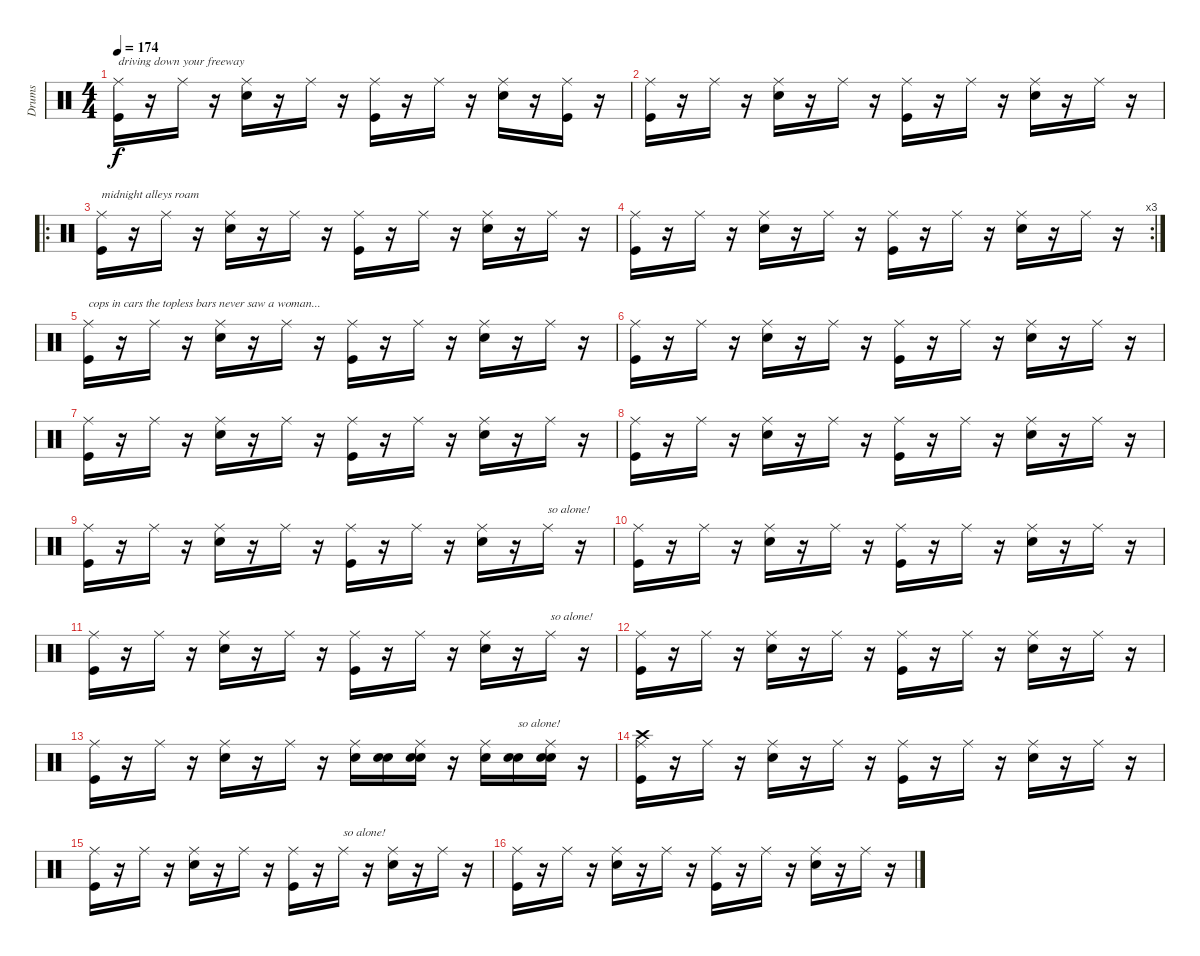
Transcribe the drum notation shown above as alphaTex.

\track ("Drums" "Drums") {instrument percussion}
\staff {score}
\articulation defaults
\ts (4 4)
\tempo 174
\clef neutral
\ks c
("Kick (hit)" "Ride (middle)").16{txt "driving down your freeway" dy f} r.16 "Ride (middle)".16 r.16 ("Snare (hit) 2" "Ride (middle)").16 r.16 "Ride (middle)".16 r.16 ("Kick (hit)" "Ride (middle)").16 r.16 "Ride (middle)".16 r.16 ("Snare (hit) 2" "Ride (middle)").16 r.16 ("Ride (middle)" "Kick (hit)").16 r.16 |
("Kick (hit)" "Ride (middle)").16 r.16 "Ride (middle)".16 r.16 ("Snare (hit) 2" "Ride (middle)").16 r.16 "Ride (middle)".16 r.16 ("Kick (hit)" "Ride (middle)").16 r.16 "Ride (middle)".16 r.16 ("Snare (hit) 2" "Ride (middle)").16 r.16 "Ride (middle)".16 r.16 |
\ro
("Kick (hit)" "Ride (middle)").16{txt "midnight alleys roam"} r.16 "Ride (middle)".16 r.16 ("Snare (hit) 2" "Ride (middle)").16 r.16 "Ride (middle)".16 r.16 ("Kick (hit)" "Ride (middle)").16 r.16 "Ride (middle)".16 r.16 ("Snare (hit) 2" "Ride (middle)").16 r.16 "Ride (middle)".16 r.16 |
\rc 3
("Kick (hit)" "Ride (middle)").16 r.16 "Ride (middle)".16 r.16 ("Snare (hit) 2" "Ride (middle)").16 r.16 "Ride (middle)".16 r.16 ("Kick (hit)" "Ride (middle)").16 r.16 "Ride (middle)".16 r.16 ("Snare (hit) 2" "Ride (middle)").16 r.16 "Ride (middle)".16 r.16 |
("Kick (hit)" "Ride (middle)").16{txt "cops in cars the topless bars never saw a woman..."} r.16 "Ride (middle)".16 r.16 ("Snare (hit) 2" "Ride (middle)").16 r.16 "Ride (middle)".16 r.16 ("Kick (hit)" "Ride (middle)").16 r.16 "Ride (middle)".16 r.16 ("Snare (hit) 2" "Ride (middle)").16 r.16 "Ride (middle)".16 r.16 |
("Kick (hit)" "Ride (middle)").16 r.16 "Ride (middle)".16 r.16 ("Snare (hit) 2" "Ride (middle)").16 r.16 "Ride (middle)".16 r.16 ("Kick (hit)" "Ride (middle)").16 r.16 "Ride (middle)".16 r.16 ("Snare (hit) 2" "Ride (middle)").16 r.16 "Ride (middle)".16 r.16 |
("Kick (hit)" "Ride (middle)").16 r.16 "Ride (middle)".16 r.16 ("Snare (hit) 2" "Ride (middle)").16 r.16 "Ride (middle)".16 r.16 ("Kick (hit)" "Ride (middle)").16 r.16 "Ride (middle)".16 r.16 ("Snare (hit) 2" "Ride (middle)").16 r.16 "Ride (middle)".16 r.16 |
("Kick (hit)" "Ride (middle)").16 r.16 "Ride (middle)".16 r.16 ("Snare (hit) 2" "Ride (middle)").16 r.16 "Ride (middle)".16 r.16 ("Kick (hit)" "Ride (middle)").16 r.16 "Ride (middle)".16 r.16 ("Snare (hit) 2" "Ride (middle)").16 r.16 "Ride (middle)".16 r.16 |
("Kick (hit)" "Ride (middle)").16 r.16 "Ride (middle)".16 r.16 ("Snare (hit) 2" "Ride (middle)").16 r.16 "Ride (middle)".16 r.16 ("Kick (hit)" "Ride (middle)").16 r.16 "Ride (middle)".16 r.16 ("Snare (hit) 2" "Ride (middle)").16 r.16 "Ride (middle)".16{txt "so alone!"} r.16 |
("Kick (hit)" "Ride (middle)").16 r.16 "Ride (middle)".16 r.16 ("Snare (hit) 2" "Ride (middle)").16 r.16 "Ride (middle)".16 r.16 ("Kick (hit)" "Ride (middle)").16 r.16 "Ride (middle)".16 r.16 ("Snare (hit) 2" "Ride (middle)").16 r.16 "Ride (middle)".16 r.16 |
("Kick (hit)" "Ride (middle)").16 r.16 "Ride (middle)".16 r.16 ("Snare (hit) 2" "Ride (middle)").16 r.16 "Ride (middle)".16 r.16 ("Kick (hit)" "Ride (middle)").16 r.16 "Ride (middle)".16 r.16 ("Snare (hit) 2" "Ride (middle)").16 r.16 "Ride (middle)".16{txt "so alone!"} r.16 |
("Kick (hit)" "Ride (middle)").16 r.16 "Ride (middle)".16 r.16 ("Snare (hit) 2" "Ride (middle)").16 r.16 "Ride (middle)".16 r.16 ("Kick (hit)" "Ride (middle)").16 r.16 "Ride (middle)".16 r.16 ("Snare (hit) 2" "Ride (middle)").16 r.16 "Ride (middle)".16 r.16 |
("Kick (hit)" "Ride (middle)").16 r.16 "Ride (middle)".16 r.16 ("Snare (hit) 2" "Ride (middle)").16 r.16 "Ride (middle)".16 r.16 ("Snare (hit) 2" "Ride (middle)").16 ("Snare (hit)" "Snare (hit) 2").16 ("Snare (hit)" "Snare (hit) 2" "Ride (middle)").16 r.16 ("Snare (hit) 2" "Ride (middle)").16 ("Snare (hit)" "Snare (hit) 2").16{txt "so alone!"} ("Snare (hit)" "Snare (hit) 2" "Ride (middle)").16 r.16 |
("Ride (middle)" "Crash high (hit)" "Kick (hit)").16 r.16 "Ride (middle)".16 r.16 ("Ride (middle)" "Snare (hit) 2").16 r.16 "Ride (middle)".16 r.16 ("Ride (middle)" "Kick (hit)").16 r.16 "Ride (middle)".16 r.16 ("Ride (middle)" "Snare (hit) 2").16 r.16 "Ride (middle)".16 r.16 |
("Ride (middle)" "Kick (hit)").16 r.16 "Ride (middle)".16 r.16 ("Ride (middle)" "Snare (hit) 2").16 r.16 "Ride (middle)".16 r.16 ("Kick (hit)" "Ride (middle)").16 r.16 "Ride (middle)".16{txt "so alone!"} r.16 ("Ride (middle)" "Snare (hit) 2").16 r.16 "Ride (middle)".16 r.16 |
("Kick (hit)" "Ride (middle)").16 r.16 "Ride (middle)".16 r.16 ("Snare (hit) 2" "Ride (middle)").16 r.16 "Ride (middle)".16 r.16 ("Kick (hit)" "Ride (middle)").16 r.16 "Ride (middle)".16 r.16 ("Snare (hit) 2" "Ride (middle)").16 r.16 "Ride (middle)".16 r.16
